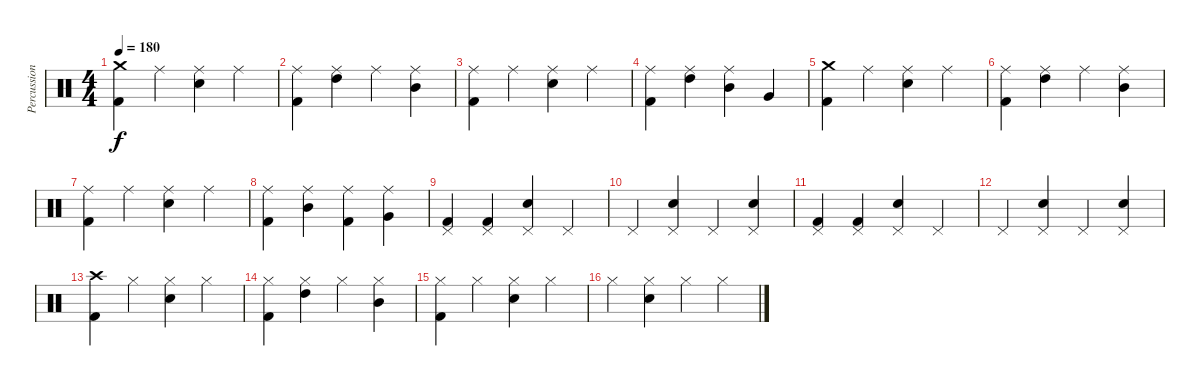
\track ("Percussion" "Percussion") {instrument percussion}
\staff {score}
\articulation defaults
\ts (4 4)
\tempo 180
\clef neutral
\ks c
("Kick (hit) 2" "Crash medium (hit)").4{dy f} "Ride (middle)".4 ("Snare (hit) 2" "Ride (middle)").4 "Ride (middle)".4 |
("Kick (hit) 2" "Ride (middle)").4 ("High Tom (hit)" "Ride (middle)").4 "Ride (middle)".4 ("Mid Tom (hit)" "Ride (middle)").4 |
("Kick (hit) 2" "Ride (middle)").4 "Ride (middle)".4 ("Snare (hit) 2" "Ride (middle)").4 "Ride (middle)".4 |
("Kick (hit) 2" "Ride (middle)").4 ("High Tom (hit)" "Ride (middle)").4 ("Mid Tom (hit)" "Ride (middle)").4 "Very Low Tom (hit)".4 |
("Kick (hit) 2" "Crash medium (hit)").4 "Ride (middle)".4 ("Snare (hit) 2" "Ride (middle)").4 "Ride (middle)".4 |
("Kick (hit) 2" "Ride (middle)").4 ("High Tom (hit)" "Ride (middle)").4 "Ride (middle)".4 ("Mid Tom (hit)" "Ride (middle)").4 |
("Kick (hit) 2" "Ride (middle)").4 "Ride (middle)".4 ("Snare (hit) 2" "Ride (middle)").4 "Ride (middle)".4 |
("Kick (hit) 2" "Ride (middle)").4 ("Mid Tom (hit)" "Ride (middle)").4 ("Kick (hit) 2" "Ride (middle)").4 ("Very Low Tom (hit)" "Ride (middle)").4 |
("Kick (hit) 2" "Pedal Hi-Hat (hit)").4 ("Kick (hit) 2" "Pedal Hi-Hat (hit)").4 ("Snare (hit) 2" "Pedal Hi-Hat (hit)").4 "Pedal Hi-Hat (hit)".4 |
"Pedal Hi-Hat (hit)".4 ("Snare (hit) 2" "Pedal Hi-Hat (hit)").4 "Pedal Hi-Hat (hit)".4 ("Snare (hit) 2" "Pedal Hi-Hat (hit)").4 |
("Kick (hit) 2" "Pedal Hi-Hat (hit)").4 ("Kick (hit) 2" "Pedal Hi-Hat (hit)").4 ("Snare (hit) 2" "Pedal Hi-Hat (hit)").4 "Pedal Hi-Hat (hit)".4 |
"Pedal Hi-Hat (hit)".4 ("Snare (hit) 2" "Pedal Hi-Hat (hit)").4 "Pedal Hi-Hat (hit)".4 ("Snare (hit) 2" "Pedal Hi-Hat (hit)").4 |
("Kick (hit) 2" "Crash high (hit)").4 "Hi-Hat (closed)".4 ("Snare (hit) 2" "Hi-Hat (closed)").4 "Hi-Hat (closed)".4 |
("Kick (hit) 2" "Hi-Hat (closed)").4 ("High Tom (hit)" "Hi-Hat (closed)").4 "Hi-Hat (closed)".4 ("Mid Tom (hit)" "Hi-Hat (closed)").4 |
("Kick (hit) 2" "Hi-Hat (closed)").4 "Hi-Hat (closed)".4 ("Snare (hit) 2" "Hi-Hat (closed)").4 "Hi-Hat (closed)".4 |
"Hi-Hat (closed)".4 ("Snare (hit) 2" "Hi-Hat (closed)").4 "Hi-Hat (closed)".4 "Hi-Hat (closed)".4
